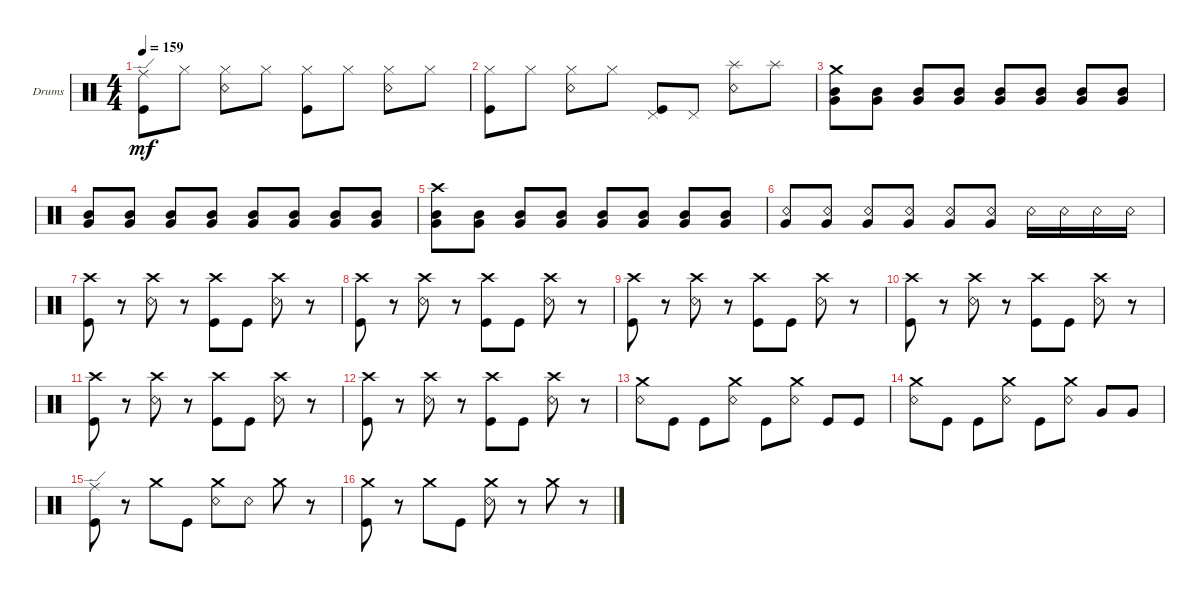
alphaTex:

\defaultSystemsLayout 4
\bracketExtendMode groupsimilarinstruments
\firstSystemTrackNameOrientation horizontal
\otherSystemsTrackNameOrientation horizontal
\track ("Drumkit" "Drums") {instrument percussion}
\staff {score}
\articulation defaults
\ts (4 4)
\tempo 159
\clef neutral
\ks c
("Ride (edge)" "Kick (hit)").8{dy mf} "Hi-Hat (closed)".8 ("Hi-Hat (closed)" "Snare (rim shot)").8 "Hi-Hat (closed)".8 ("Hi-Hat (closed)" "Kick (hit)").8 "Hi-Hat (closed)".8 ("Hi-Hat (closed)" "Snare (rim shot)").8 "Hi-Hat (closed)".8 |
("Hi-Hat (closed)" "Kick (hit)").8 "Hi-Hat (closed)".8 ("Hi-Hat (closed)" "Snare (rim shot)").8 "Hi-Hat (closed)".8 ("Kick (hit)" "Pedal Hi-Hat (hit)").8 "Pedal Hi-Hat (hit)".8 ("Snare (rim shot)" "Splash (hit)").8 "Splash (hit)".8 |
("Very Low Tom (hit)" "Mid Tom (hit)" "Crash medium (hit)").8 ("Very Low Tom (hit)" "Mid Tom (hit)").8 ("Very Low Tom (hit)" "Mid Tom (hit)").8 ("Very Low Tom (hit)" "Mid Tom (hit)").8 ("Very Low Tom (hit)" "Mid Tom (hit)").8 ("Very Low Tom (hit)" "Mid Tom (hit)").8 ("Very Low Tom (hit)" "Mid Tom (hit)").8 ("Very Low Tom (hit)" "Mid Tom (hit)").8 |
("Very Low Tom (hit)" "Mid Tom (hit)").8 ("Very Low Tom (hit)" "Mid Tom (hit)").8 ("Very Low Tom (hit)" "Mid Tom (hit)").8 ("Very Low Tom (hit)" "Mid Tom (hit)").8 ("Very Low Tom (hit)" "Mid Tom (hit)").8 ("Very Low Tom (hit)" "Mid Tom (hit)").8 ("Very Low Tom (hit)" "Mid Tom (hit)").8 ("Very Low Tom (hit)" "Mid Tom (hit)").8 |
("Very Low Tom (hit)" "Mid Tom (hit)" "Crash high (hit)").8 ("Very Low Tom (hit)" "Mid Tom (hit)").8 ("Very Low Tom (hit)" "Mid Tom (hit)").8 ("Very Low Tom (hit)" "Mid Tom (hit)").8 ("Very Low Tom (hit)" "Mid Tom (hit)").8 ("Very Low Tom (hit)" "Mid Tom (hit)").8 ("Very Low Tom (hit)" "Mid Tom (hit)").8 ("Very Low Tom (hit)" "Mid Tom (hit)").8 |
("Very Low Tom (hit)" "Snare (rim shot)").8 ("Very Low Tom (hit)" "Snare (rim shot)").8 ("Very Low Tom (hit)" "Snare (rim shot)").8 ("Very Low Tom (hit)" "Snare (rim shot)").8 ("Very Low Tom (hit)" "Snare (rim shot)").8 ("Very Low Tom (hit)" "Snare (rim shot)").8 "Snare (rim shot)".16 "Snare (rim shot)".16 "Snare (rim shot)".16 "Snare (rim shot)".16 |
("Crash high (hit)" "Kick (hit)").8 r.8 ("Crash high (hit)" "Snare (rim shot)").8 r.8 ("Crash high (hit)" "Kick (hit)").8 "Kick (hit)".8 ("Crash high (hit)" "Snare (rim shot)").8 r.8 |
("Crash high (hit)" "Kick (hit)").8 r.8 ("Crash high (hit)" "Snare (rim shot)").8 r.8 ("Crash high (hit)" "Kick (hit)").8 "Kick (hit)".8 ("Crash high (hit)" "Snare (rim shot)").8 r.8 |
("Crash high (hit)" "Kick (hit)").8 r.8 ("Crash high (hit)" "Snare (rim shot)").8 r.8 ("Crash high (hit)" "Kick (hit)").8 "Kick (hit)".8 ("Crash high (hit)" "Snare (rim shot)").8 r.8 |
("Crash high (hit)" "Kick (hit)").8 r.8 ("Crash high (hit)" "Snare (rim shot)").8 r.8 ("Crash high (hit)" "Kick (hit)").8 "Kick (hit)".8 ("Crash high (hit)" "Snare (rim shot)").8 r.8 |
("Crash high (hit)" "Kick (hit)").8 r.8 ("Crash high (hit)" "Snare (rim shot)").8 r.8 ("Crash high (hit)" "Kick (hit)").8 "Kick (hit)".8 ("Crash high (hit)" "Snare (rim shot)").8 r.8 |
("Crash high (hit)" "Kick (hit)").8 r.8 ("Crash high (hit)" "Snare (rim shot)").8 r.8 ("Crash high (hit)" "Kick (hit)").8 "Kick (hit)".8 ("Crash high (hit)" "Snare (rim shot)").8 r.8 |
("Snare (rim shot)" "Crash medium (hit)").8 "Kick (hit)".8 "Kick (hit)".8 ("Snare (rim shot)" "Crash medium (hit)").8 "Kick (hit)".8 ("Snare (rim shot)" "Crash medium (hit)").8 "Kick (hit)".8 "Kick (hit)".8 |
("Snare (rim shot)" "Crash medium (hit)").8 "Kick (hit)".8 "Kick (hit)".8 ("Snare (rim shot)" "Crash medium (hit)").8 "Kick (hit)".8 ("Snare (rim shot)" "Crash medium (hit)").8 "Very Low Tom (hit)".8 "Very Low Tom (hit)".8 |
("Ride (edge)" "Kick (hit)").8 r.8 "Crash medium (hit)".8 "Kick (hit)".8 ("Crash medium (hit)" "Snare (rim shot)").8 "Snare (rim shot)".8 "Crash medium (hit)".8 r.8 |
("Crash medium (hit)" "Kick (hit)").8 r.8 "Crash medium (hit)".8 "Kick (hit)".8 ("Crash medium (hit)" "Snare (rim shot)").8 r.8 "Crash medium (hit)".8 r.8
